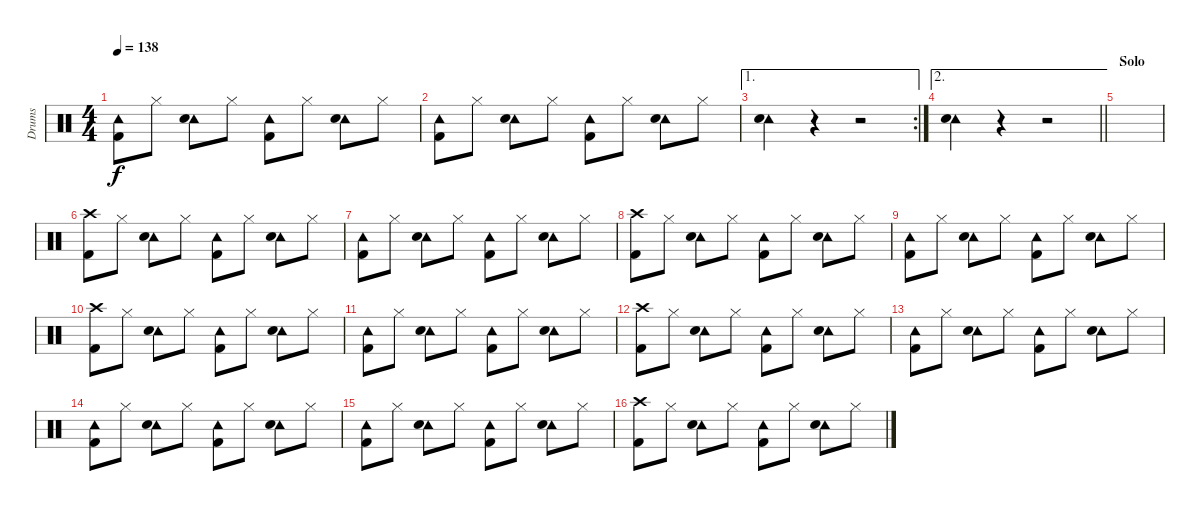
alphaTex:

\track ("Drums" "Drums") {instrument percussion}
\staff {score}
\articulation defaults
\ts (4 4)
\tempo 138
\clef neutral
\ks c
("Tambourine (hit)" "Kick (hit) 2").8{dy f} "Hi-Hat (closed)".8 ("Tambourine (hit)" "Snare (hit) 2").8 "Hi-Hat (closed)".8 ("Tambourine (hit)" "Kick (hit) 2").8 "Hi-Hat (closed)".8 ("Tambourine (hit)" "Snare (hit) 2").8 "Hi-Hat (closed)".8 |
("Tambourine (hit)" "Kick (hit) 2").8 "Hi-Hat (closed)".8 ("Tambourine (hit)" "Snare (hit) 2").8 "Hi-Hat (closed)".8 ("Tambourine (hit)" "Kick (hit) 2").8 "Hi-Hat (closed)".8 ("Tambourine (hit)" "Snare (hit) 2").8 "Hi-Hat (closed)".8 |
\ae 1
\rc 2
("Tambourine (hit)" "Snare (hit) 2").4 r.4 r.2 |
\ae 2
\barLineRight lightlight
("Tambourine (hit)" "Snare (hit) 2").4 r.4 r.2 |
\section ("" "Solo")
|
("Crash high (hit)" "Kick (hit) 2").8 "Hi-Hat (closed)".8 ("Tambourine (hit)" "Snare (hit) 2").8 "Hi-Hat (closed)".8 ("Tambourine (hit)" "Kick (hit) 2").8 "Hi-Hat (closed)".8 ("Tambourine (hit)" "Snare (hit) 2").8 "Hi-Hat (closed)".8 |
("Tambourine (hit)" "Kick (hit) 2").8 "Hi-Hat (closed)".8 ("Tambourine (hit)" "Snare (hit) 2").8 "Hi-Hat (closed)".8 ("Tambourine (hit)" "Kick (hit) 2").8 "Hi-Hat (closed)".8 ("Tambourine (hit)" "Snare (hit) 2").8 "Hi-Hat (closed)".8 |
("Crash high (hit)" "Kick (hit) 2").8 "Hi-Hat (closed)".8 ("Tambourine (hit)" "Snare (hit) 2").8 "Hi-Hat (closed)".8 ("Tambourine (hit)" "Kick (hit) 2").8 "Hi-Hat (closed)".8 ("Tambourine (hit)" "Snare (hit) 2").8 "Hi-Hat (closed)".8 |
("Tambourine (hit)" "Kick (hit) 2").8 "Hi-Hat (closed)".8 ("Tambourine (hit)" "Snare (hit) 2").8 "Hi-Hat (closed)".8 ("Tambourine (hit)" "Kick (hit) 2").8 "Hi-Hat (closed)".8 ("Tambourine (hit)" "Snare (hit) 2").8 "Hi-Hat (closed)".8 |
("Crash high (hit)" "Kick (hit) 2").8 "Hi-Hat (closed)".8 ("Tambourine (hit)" "Snare (hit) 2").8 "Hi-Hat (closed)".8 ("Tambourine (hit)" "Kick (hit) 2").8 "Hi-Hat (closed)".8 ("Tambourine (hit)" "Snare (hit) 2").8 "Hi-Hat (closed)".8 |
("Tambourine (hit)" "Kick (hit) 2").8 "Hi-Hat (closed)".8 ("Tambourine (hit)" "Snare (hit) 2").8 "Hi-Hat (closed)".8 ("Tambourine (hit)" "Kick (hit) 2").8 "Hi-Hat (closed)".8 ("Tambourine (hit)" "Snare (hit) 2").8 "Hi-Hat (closed)".8 |
("Crash high (hit)" "Kick (hit) 2").8 "Hi-Hat (closed)".8 ("Tambourine (hit)" "Snare (hit) 2").8 "Hi-Hat (closed)".8 ("Tambourine (hit)" "Kick (hit) 2").8 "Hi-Hat (closed)".8 ("Tambourine (hit)" "Snare (hit) 2").8 "Hi-Hat (closed)".8 |
("Tambourine (hit)" "Kick (hit) 2").8 "Hi-Hat (closed)".8 ("Tambourine (hit)" "Snare (hit) 2").8 "Hi-Hat (closed)".8 ("Tambourine (hit)" "Kick (hit) 2").8 "Hi-Hat (closed)".8 ("Tambourine (hit)" "Snare (hit) 2").8 "Hi-Hat (closed)".8 |
("Tambourine (hit)" "Kick (hit) 2").8 "Hi-Hat (closed)".8 ("Tambourine (hit)" "Snare (hit) 2").8 "Hi-Hat (closed)".8 ("Tambourine (hit)" "Kick (hit) 2").8 "Hi-Hat (closed)".8 ("Tambourine (hit)" "Snare (hit) 2").8 "Hi-Hat (closed)".8 |
("Tambourine (hit)" "Kick (hit) 2").8 "Hi-Hat (closed)".8 ("Tambourine (hit)" "Snare (hit) 2").8 "Hi-Hat (closed)".8 ("Tambourine (hit)" "Kick (hit) 2").8 "Hi-Hat (closed)".8 ("Tambourine (hit)" "Snare (hit) 2").8 "Hi-Hat (closed)".8 |
("Crash high (hit)" "Kick (hit) 2").8 "Hi-Hat (closed)".8 ("Tambourine (hit)" "Snare (hit) 2").8 "Hi-Hat (closed)".8 ("Tambourine (hit)" "Kick (hit) 2").8 "Hi-Hat (closed)".8 ("Tambourine (hit)" "Snare (hit) 2").8 "Hi-Hat (closed)".8
